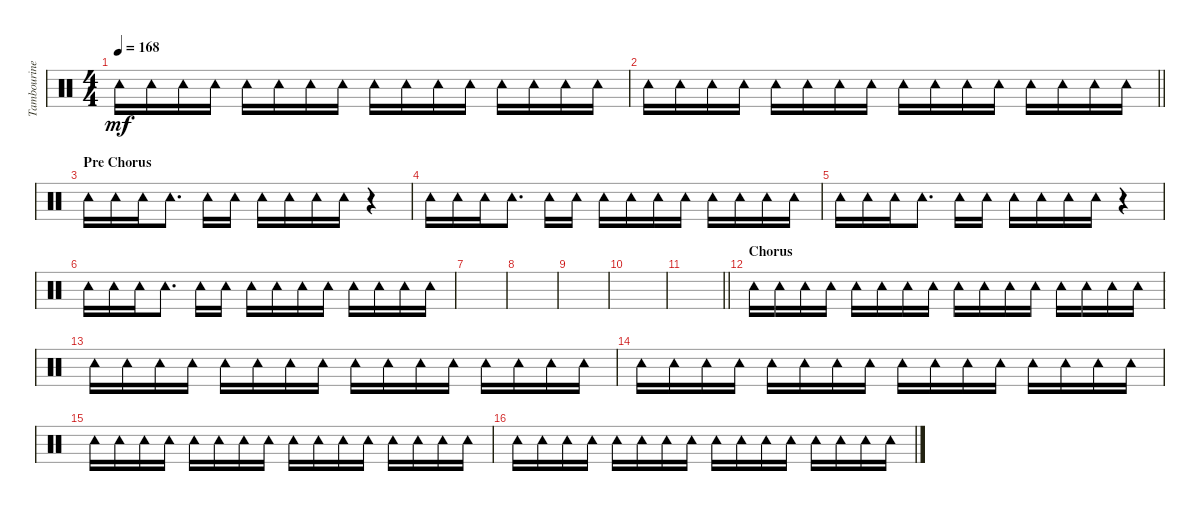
\track ("Tambourine" "Tambourine") {instrument percussion}
\staff {score}
\articulation defaults
\ts (4 4)
\tempo 168
\clef neutral
\ks c "Tambourine (hit)".16{dy mf} "Tambourine (hit)".16 "Tambourine (hit)".16 "Tambourine (hit)".16 "Tambourine (hit)".16 "Tambourine (hit)".16 "Tambourine (hit)".16 "Tambourine (hit)".16 "Tambourine (hit)".16 "Tambourine (hit)".16 "Tambourine (hit)".16 "Tambourine (hit)".16 "Tambourine (hit)".16 "Tambourine (hit)".16 "Tambourine (hit)".16 "Tambourine (hit)".16
|
\barLineRight lightlight "Tambourine (hit)".16 "Tambourine (hit)".16 "Tambourine (hit)".16 "Tambourine (hit)".16 "Tambourine (hit)".16 "Tambourine (hit)".16 "Tambourine (hit)".16 "Tambourine (hit)".16 "Tambourine (hit)".16 "Tambourine (hit)".16 "Tambourine (hit)".16 "Tambourine (hit)".16 "Tambourine (hit)".16 "Tambourine (hit)".16 "Tambourine (hit)".16 "Tambourine (hit)".16
|
\section ("" "Pre Chorus")
"Tambourine (hit)".16 "Tambourine (hit)".16 "Tambourine (hit)".16 "Tambourine (hit)".8{d} "Tambourine (hit)".16 "Tambourine (hit)".16 "Tambourine (hit)".16 "Tambourine (hit)".16 "Tambourine (hit)".16 "Tambourine (hit)".16 r.4 |
"Tambourine (hit)".16 "Tambourine (hit)".16 "Tambourine (hit)".16 "Tambourine (hit)".8{d} "Tambourine (hit)".16 "Tambourine (hit)".16 "Tambourine (hit)".16 "Tambourine (hit)".16 "Tambourine (hit)".16 "Tambourine (hit)".16 "Tambourine (hit)".16 "Tambourine (hit)".16 "Tambourine (hit)".16 "Tambourine (hit)".16 |
"Tambourine (hit)".16 "Tambourine (hit)".16 "Tambourine (hit)".16 "Tambourine (hit)".8{d} "Tambourine (hit)".16 "Tambourine (hit)".16 "Tambourine (hit)".16 "Tambourine (hit)".16 "Tambourine (hit)".16 "Tambourine (hit)".16 r.4 |
"Tambourine (hit)".16 "Tambourine (hit)".16 "Tambourine (hit)".16 "Tambourine (hit)".8{d} "Tambourine (hit)".16 "Tambourine (hit)".16 "Tambourine (hit)".16 "Tambourine (hit)".16 "Tambourine (hit)".16 "Tambourine (hit)".16 "Tambourine (hit)".16 "Tambourine (hit)".16 "Tambourine (hit)".16 "Tambourine (hit)".16 |
|
|
|
|
\barLineRight lightlight
|
\section ("" "Chorus")
"Tambourine (hit)".16 "Tambourine (hit)".16 "Tambourine (hit)".16 "Tambourine (hit)".16 "Tambourine (hit)".16 "Tambourine (hit)".16 "Tambourine (hit)".16 "Tambourine (hit)".16 "Tambourine (hit)".16 "Tambourine (hit)".16 "Tambourine (hit)".16 "Tambourine (hit)".16 "Tambourine (hit)".16 "Tambourine (hit)".16 "Tambourine (hit)".16 "Tambourine (hit)".16 |
"Tambourine (hit)".16 "Tambourine (hit)".16 "Tambourine (hit)".16 "Tambourine (hit)".16 "Tambourine (hit)".16 "Tambourine (hit)".16 "Tambourine (hit)".16 "Tambourine (hit)".16 "Tambourine (hit)".16 "Tambourine (hit)".16 "Tambourine (hit)".16 "Tambourine (hit)".16 "Tambourine (hit)".16 "Tambourine (hit)".16 "Tambourine (hit)".16 "Tambourine (hit)".16 |
"Tambourine (hit)".16 "Tambourine (hit)".16 "Tambourine (hit)".16 "Tambourine (hit)".16 "Tambourine (hit)".16 "Tambourine (hit)".16 "Tambourine (hit)".16 "Tambourine (hit)".16 "Tambourine (hit)".16 "Tambourine (hit)".16 "Tambourine (hit)".16 "Tambourine (hit)".16 "Tambourine (hit)".16 "Tambourine (hit)".16 "Tambourine (hit)".16 "Tambourine (hit)".16 |
"Tambourine (hit)".16 "Tambourine (hit)".16 "Tambourine (hit)".16 "Tambourine (hit)".16 "Tambourine (hit)".16 "Tambourine (hit)".16 "Tambourine (hit)".16 "Tambourine (hit)".16 "Tambourine (hit)".16 "Tambourine (hit)".16 "Tambourine (hit)".16 "Tambourine (hit)".16 "Tambourine (hit)".16 "Tambourine (hit)".16 "Tambourine (hit)".16 "Tambourine (hit)".16 |
"Tambourine (hit)".16 "Tambourine (hit)".16 "Tambourine (hit)".16 "Tambourine (hit)".16 "Tambourine (hit)".16 "Tambourine (hit)".16 "Tambourine (hit)".16 "Tambourine (hit)".16 "Tambourine (hit)".16 "Tambourine (hit)".16 "Tambourine (hit)".16 "Tambourine (hit)".16 "Tambourine (hit)".16 "Tambourine (hit)".16 "Tambourine (hit)".16 "Tambourine (hit)".16
